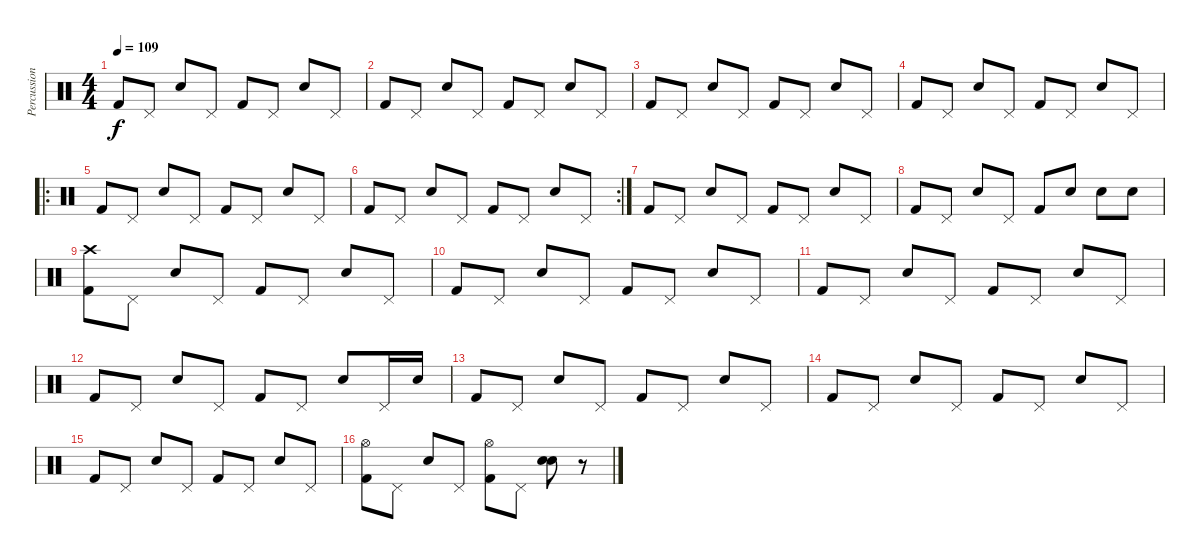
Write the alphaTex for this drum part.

\track ("Percussions" "Percussion") {instrument percussion}
\staff {score}
\articulation defaults
\ts (4 4)
\tempo 109
\clef neutral
\ks c "Kick (hit) 2".8{dy f} "Pedal Hi-Hat (hit)".8 "Snare (hit) 2".8 "Pedal Hi-Hat (hit)".8 "Kick (hit) 2".8 "Pedal Hi-Hat (hit)".8 "Snare (hit) 2".8 "Pedal Hi-Hat (hit)".8
|
"Kick (hit) 2".8 "Pedal Hi-Hat (hit)".8 "Snare (hit) 2".8 "Pedal Hi-Hat (hit)".8 "Kick (hit) 2".8 "Pedal Hi-Hat (hit)".8 "Snare (hit) 2".8 "Pedal Hi-Hat (hit)".8 |
"Kick (hit) 2".8 "Pedal Hi-Hat (hit)".8 "Snare (hit) 2".8 "Pedal Hi-Hat (hit)".8 "Kick (hit) 2".8 "Pedal Hi-Hat (hit)".8 "Snare (hit) 2".8 "Pedal Hi-Hat (hit)".8 |
"Kick (hit) 2".8 "Pedal Hi-Hat (hit)".8 "Snare (hit) 2".8 "Pedal Hi-Hat (hit)".8 "Kick (hit) 2".8 "Pedal Hi-Hat (hit)".8 "Snare (hit) 2".8 "Pedal Hi-Hat (hit)".8 |
\ro "Kick (hit) 2".8 "Pedal Hi-Hat (hit)".8 "Snare (hit) 2".8 "Pedal Hi-Hat (hit)".8 "Kick (hit) 2".8 "Pedal Hi-Hat (hit)".8 "Snare (hit) 2".8 "Pedal Hi-Hat (hit)".8
|
\rc 2 "Kick (hit) 2".8 "Pedal Hi-Hat (hit)".8 "Snare (hit) 2".8 "Pedal Hi-Hat (hit)".8 "Kick (hit) 2".8 "Pedal Hi-Hat (hit)".8 "Snare (hit) 2".8 "Pedal Hi-Hat (hit)".8
|
"Kick (hit) 2".8 "Pedal Hi-Hat (hit)".8 "Snare (hit) 2".8 "Pedal Hi-Hat (hit)".8 "Kick (hit) 2".8 "Pedal Hi-Hat (hit)".8 "Snare (hit) 2".8 "Pedal Hi-Hat (hit)".8 |
"Kick (hit) 2".8 "Pedal Hi-Hat (hit)".8 "Snare (hit) 2".8 "Pedal Hi-Hat (hit)".8 "Kick (hit) 2".8 "Snare (hit) 2".8 "Snare (hit) 2".8 "Snare (hit) 2".8 |
("Crash high (hit)" "Kick (hit) 2").8 "Pedal Hi-Hat (hit)".8 "Snare (hit) 2".8 "Pedal Hi-Hat (hit)".8 "Kick (hit) 2".8 "Pedal Hi-Hat (hit)".8 "Snare (hit) 2".8 "Pedal Hi-Hat (hit)".8 |
"Kick (hit) 2".8 "Pedal Hi-Hat (hit)".8 "Snare (hit) 2".8 "Pedal Hi-Hat (hit)".8 "Kick (hit) 2".8 "Pedal Hi-Hat (hit)".8 "Snare (hit) 2".8 "Pedal Hi-Hat (hit)".8 |
"Kick (hit) 2".8 "Pedal Hi-Hat (hit)".8 "Snare (hit) 2".8 "Pedal Hi-Hat (hit)".8 "Kick (hit) 2".8 "Pedal Hi-Hat (hit)".8 "Snare (hit) 2".8 "Pedal Hi-Hat (hit)".8 |
"Kick (hit) 2".8 "Pedal Hi-Hat (hit)".8 "Snare (hit) 2".8 "Pedal Hi-Hat (hit)".8 "Kick (hit) 2".8 "Pedal Hi-Hat (hit)".8 "Snare (hit) 2".8 "Pedal Hi-Hat (hit)".16 "Snare (hit) 2".16 |
"Kick (hit) 2".8 "Pedal Hi-Hat (hit)".8 "Snare (hit) 2".8 "Pedal Hi-Hat (hit)".8 "Kick (hit) 2".8 "Pedal Hi-Hat (hit)".8 "Snare (hit) 2".8 "Pedal Hi-Hat (hit)".8 |
"Kick (hit) 2".8 "Pedal Hi-Hat (hit)".8 "Snare (hit) 2".8 "Pedal Hi-Hat (hit)".8 "Kick (hit) 2".8 "Pedal Hi-Hat (hit)".8 "Snare (hit) 2".8 "Pedal Hi-Hat (hit)".8 |
"Kick (hit) 2".8 "Pedal Hi-Hat (hit)".8 "Snare (hit) 2".8 "Pedal Hi-Hat (hit)".8 "Kick (hit) 2".8 "Pedal Hi-Hat (hit)".8 "Snare (hit) 2".8 "Pedal Hi-Hat (hit)".8 |
("Kick (hit) 2" "Hi-Hat (open)").8 "Pedal Hi-Hat (hit)".8 "Snare (hit) 2".8 "Pedal Hi-Hat (hit)".8 ("Kick (hit) 2" "Hi-Hat (open)").8 "Pedal Hi-Hat (hit)".8 ("Snare (hit) 2" "Snare (hit) 2").8 r.8
